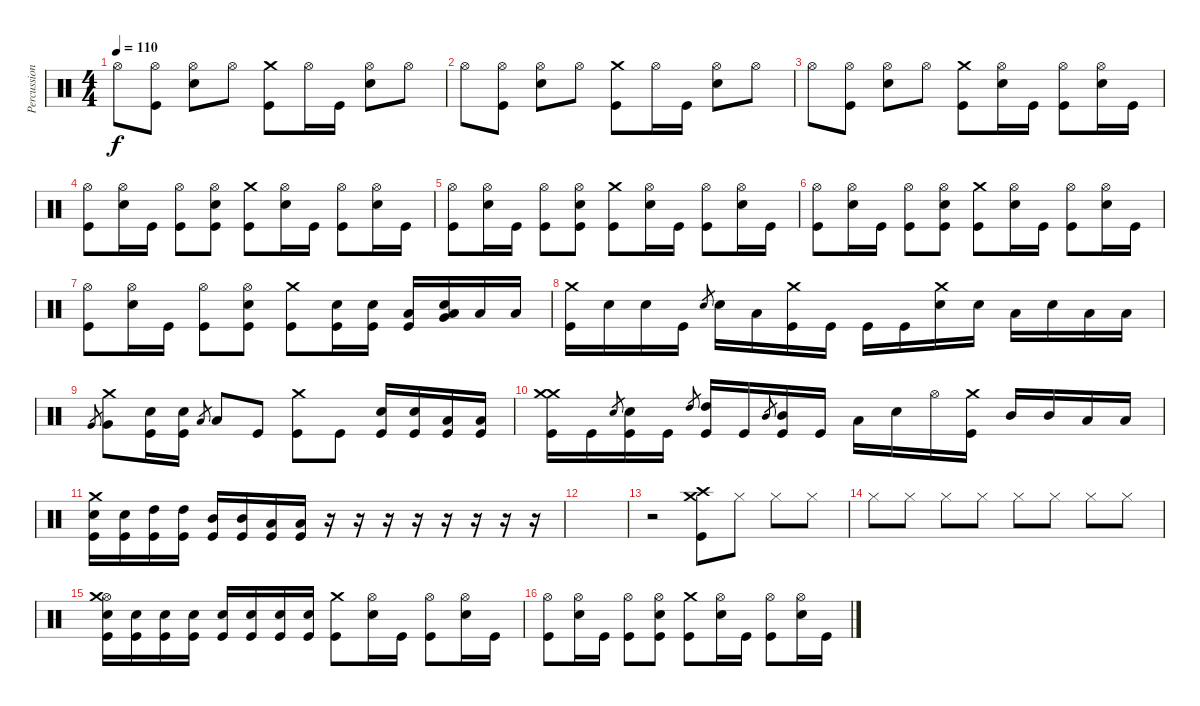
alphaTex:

\track ("Percussion" "Percussion") {instrument percussion}
\staff {score}
\articulation defaults
\ts (4 4)
\tempo 110
\clef neutral
\ks c "Hi-Hat (open)".8{dy f}
("Kick (hit)" "Hi-Hat (open)").8 ("Electric Snare (hit)" "Hi-Hat (open)").8 "Hi-Hat (open)".8 ("Crash medium (hit)" "Kick (hit)").8 "Hi-Hat (open)".16 "Kick (hit)".16 ("Hi-Hat (open)" "Electric Snare (hit)").8 "Hi-Hat (open)".8 |
"Hi-Hat (open)".8 ("Kick (hit)" "Hi-Hat (open)").8 ("Electric Snare (hit)" "Hi-Hat (open)").8 "Hi-Hat (open)".8 ("Crash medium (hit)" "Kick (hit)").8 "Hi-Hat (open)".16 "Kick (hit)".16 ("Hi-Hat (open)" "Electric Snare (hit)").8 "Hi-Hat (open)".8 |
"Hi-Hat (open)".8 ("Kick (hit)" "Hi-Hat (open)").8 ("Electric Snare (hit)" "Hi-Hat (open)").8 "Hi-Hat (open)".8 ("Crash medium (hit)" "Kick (hit)").8 ("Hi-Hat (open)" "Electric Snare (hit)").16 "Kick (hit)".16 ("Hi-Hat (open)" "Kick (hit)").8 ("Hi-Hat (open)" "Electric Snare (hit)").16 "Kick (hit)".16 |
("Hi-Hat (open)" "Kick (hit)").8 ("Hi-Hat (open)" "Electric Snare (hit)").16 "Kick (hit)".16 ("Hi-Hat (open)" "Kick (hit)").8 ("Hi-Hat (open)" "Electric Snare (hit)" "Kick (hit)").8 ("Crash medium (hit)" "Kick (hit)").8 ("Hi-Hat (open)" "Electric Snare (hit)").16 "Kick (hit)".16 ("Hi-Hat (open)" "Kick (hit)").8 ("Hi-Hat (open)" "Electric Snare (hit)").16 "Kick (hit)".16 |
("Hi-Hat (open)" "Kick (hit)").8 ("Hi-Hat (open)" "Electric Snare (hit)").16 "Kick (hit)".16 ("Hi-Hat (open)" "Kick (hit)").8 ("Hi-Hat (open)" "Electric Snare (hit)" "Kick (hit)").8 ("Crash medium (hit)" "Kick (hit)").8 ("Hi-Hat (open)" "Electric Snare (hit)").16 "Kick (hit)".16 ("Hi-Hat (open)" "Kick (hit)").8 ("Hi-Hat (open)" "Electric Snare (hit)").16 "Kick (hit)".16 |
("Hi-Hat (open)" "Kick (hit)").8 ("Hi-Hat (open)" "Electric Snare (hit)").16 "Kick (hit)".16 ("Hi-Hat (open)" "Kick (hit)").8 ("Hi-Hat (open)" "Electric Snare (hit)" "Kick (hit)").8 ("Crash medium (hit)" "Kick (hit)").8 ("Hi-Hat (open)" "Electric Snare (hit)").16 "Kick (hit)".16 ("Hi-Hat (open)" "Kick (hit)").8 ("Hi-Hat (open)" "Electric Snare (hit)").16 "Kick (hit)".16 |
("Hi-Hat (open)" "Kick (hit)").8 ("Hi-Hat (open)" "Electric Snare (hit)").16 "Kick (hit)".16 ("Hi-Hat (open)" "Kick (hit)").8 ("Hi-Hat (open)" "Electric Snare (hit)" "Kick (hit)").8 ("Crash medium (hit)" "Kick (hit)").8 ("Electric Snare (hit)" "Kick (hit)").16 ("Electric Snare (hit)" "Kick (hit)").16 ("Low Tom (hit)" "Kick (hit)").16 ("Very Low Tom (hit)" "Electric Snare (hit)" "Low Floor Tom (hit)").16 "Low Floor Tom (hit)".16 "Low Floor Tom (hit)".16 |
("Crash medium (hit)" "Kick (hit)").16 "Electric Snare (hit)".16 "Electric Snare (hit)".16 "Kick (hit)".16 "Electric Snare (hit)".8{gr} "Electric Snare (hit)".16 "Low Floor Tom (hit)".16 ("Crash medium (hit)" "Kick (hit)").16 "Kick (hit)".16 "Kick (hit)".16 "Kick (hit)".16 ("Crash medium (hit)" "Electric Snare (hit)").16 "Electric Snare (hit)".16 "Low Tom (hit)".16 "Electric Snare (hit)".16 "Low Tom (hit)".16 "Low Tom (hit)".16 |
"Very Low Tom (hit)".8{gr} ("Crash medium (hit)" "Very Low Tom (hit)").8 ("Electric Snare (hit)" "Kick (hit)").16 ("Electric Snare (hit)" "Kick (hit)").16 "Low Floor Tom (hit)".8{gr} "Low Floor Tom (hit)".8 "Kick (hit)".8 ("Crash medium (hit)" "Kick (hit)").8 "Kick (hit)".8 ("Electric Snare (hit)" "Kick (hit)").16 ("Electric Snare (hit)" "Kick (hit)").16 ("Low Tom (hit)" "Kick (hit)").16 ("Low Tom (hit)" "Kick (hit)").16 |
("Crash medium (hit)" "Kick (hit)" "Crash medium (hit)").16 "Kick (hit)".16 "Electric Snare (hit)".8{gr} ("Electric Snare (hit)" "Kick (hit)").16 "Kick (hit)".16 "High Tom (hit)".8{gr} ("High Tom (hit)" "Kick (hit)").16 "Kick (hit)".16 "Mid Tom (hit)".8{gr} ("Mid Tom (hit)" "Kick (hit)").16 "Kick (hit)".16 "Low Floor Tom (hit)".16 "Electric Snare (hit)".16 "Hi-Hat (open)".16 ("Crash medium (hit)" "Kick (hit)").16 "Mid Tom (hit)".16 "Mid Tom (hit)".16 "Low Tom (hit)".16 "Low Tom (hit)".16 |
("Crash medium (hit)" "Electric Snare (hit)" "Kick (hit)").16 ("Electric Snare (hit)" "Kick (hit)").16 ("High Tom (hit)" "Kick (hit)").16 ("High Tom (hit)" "Kick (hit)").16 ("Mid Tom (hit)" "Kick (hit)").16 ("Mid Tom (hit)" "Kick (hit)").16 ("Low Tom (hit)" "Kick (hit)").16 ("Low Tom (hit)" "Kick (hit)").16 r.16 r.16 r.16 r.16 r.16 r.16 r.16 r.16 |
|
r.2 ("Kick (hit)" "Crash high (hit)" "Crash medium (hit)").8 "Hi-Hat (closed)".8 "Hi-Hat (closed)".8 "Hi-Hat (closed)".8 |
"Hi-Hat (closed)".8 "Hi-Hat (closed)".8 "Hi-Hat (closed)".8 "Hi-Hat (closed)".8 "Hi-Hat (closed)".8 "Hi-Hat (closed)".8 "Hi-Hat (closed)".8 "Hi-Hat (closed)".8 |
("Hi-Hat (open)" "Crash medium (hit)" "Electric Snare (hit)" "Kick (hit)").16 ("Electric Snare (hit)" "Kick (hit)").16 ("Electric Snare (hit)" "Kick (hit)").16 ("Electric Snare (hit)" "Kick (hit)").16 ("Electric Snare (hit)" "Kick (hit)").16 ("Electric Snare (hit)" "Kick (hit)").16 ("Electric Snare (hit)" "Kick (hit)").16 ("Electric Snare (hit)" "Kick (hit)").16 ("Crash medium (hit)" "Kick (hit)").8 ("Hi-Hat (open)" "Electric Snare (hit)").16 "Kick (hit)".16 ("Hi-Hat (open)" "Kick (hit)").8 ("Hi-Hat (open)" "Electric Snare (hit)").16 "Kick (hit)".16 |
("Hi-Hat (open)" "Kick (hit)").8 ("Hi-Hat (open)" "Electric Snare (hit)").16 "Kick (hit)".16 ("Hi-Hat (open)" "Kick (hit)").8 ("Hi-Hat (open)" "Electric Snare (hit)" "Kick (hit)").8 ("Crash medium (hit)" "Kick (hit)").8 ("Hi-Hat (open)" "Electric Snare (hit)").16 "Kick (hit)".16 ("Hi-Hat (open)" "Kick (hit)").8 ("Hi-Hat (open)" "Electric Snare (hit)").16 "Kick (hit)".16
